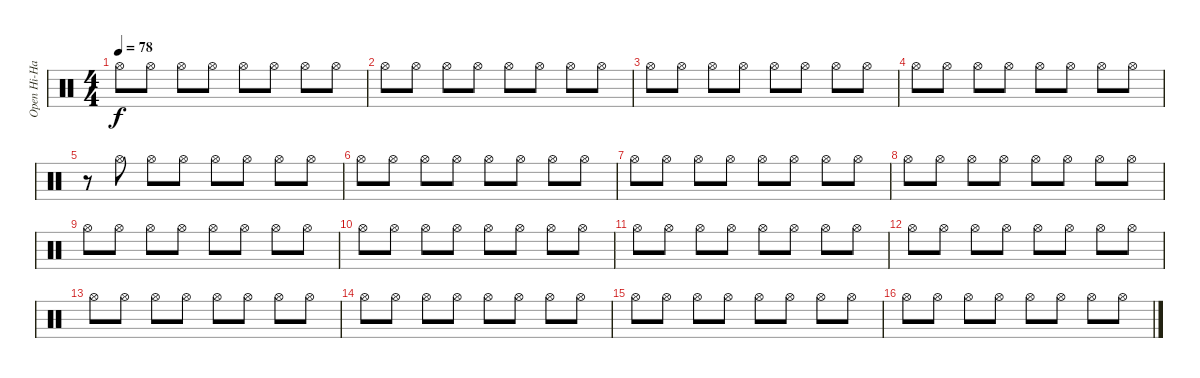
\track ("Open Hi-Hat" "Open Hi-Ha") {instrument percussion}
\staff {score}
\articulation defaults
\ts (4 4)
\tempo 78
\clef neutral
\ks c "Hi-Hat (open)".8{dy f} "Hi-Hat (open)".8 "Hi-Hat (open)".8 "Hi-Hat (open)".8 "Hi-Hat (open)".8 "Hi-Hat (open)".8 "Hi-Hat (open)".8 "Hi-Hat (open)".8
|
"Hi-Hat (open)".8 "Hi-Hat (open)".8 "Hi-Hat (open)".8 "Hi-Hat (open)".8 "Hi-Hat (open)".8 "Hi-Hat (open)".8 "Hi-Hat (open)".8 "Hi-Hat (open)".8 |
"Hi-Hat (open)".8 "Hi-Hat (open)".8 "Hi-Hat (open)".8 "Hi-Hat (open)".8 "Hi-Hat (open)".8 "Hi-Hat (open)".8 "Hi-Hat (open)".8 "Hi-Hat (open)".8 |
"Hi-Hat (open)".8 "Hi-Hat (open)".8 "Hi-Hat (open)".8 "Hi-Hat (open)".8 "Hi-Hat (open)".8 "Hi-Hat (open)".8 "Hi-Hat (open)".8 "Hi-Hat (open)".8 |
r.8 "Hi-Hat (open)".8 "Hi-Hat (open)".8 "Hi-Hat (open)".8 "Hi-Hat (open)".8 "Hi-Hat (open)".8 "Hi-Hat (open)".8 "Hi-Hat (open)".8 |
"Hi-Hat (open)".8 "Hi-Hat (open)".8 "Hi-Hat (open)".8 "Hi-Hat (open)".8 "Hi-Hat (open)".8 "Hi-Hat (open)".8 "Hi-Hat (open)".8 "Hi-Hat (open)".8 |
"Hi-Hat (open)".8 "Hi-Hat (open)".8 "Hi-Hat (open)".8 "Hi-Hat (open)".8 "Hi-Hat (open)".8 "Hi-Hat (open)".8 "Hi-Hat (open)".8 "Hi-Hat (open)".8 |
"Hi-Hat (open)".8 "Hi-Hat (open)".8 "Hi-Hat (open)".8 "Hi-Hat (open)".8 "Hi-Hat (open)".8 "Hi-Hat (open)".8 "Hi-Hat (open)".8 "Hi-Hat (open)".8 |
"Hi-Hat (open)".8 "Hi-Hat (open)".8 "Hi-Hat (open)".8 "Hi-Hat (open)".8 "Hi-Hat (open)".8 "Hi-Hat (open)".8 "Hi-Hat (open)".8 "Hi-Hat (open)".8 |
"Hi-Hat (open)".8 "Hi-Hat (open)".8 "Hi-Hat (open)".8 "Hi-Hat (open)".8 "Hi-Hat (open)".8 "Hi-Hat (open)".8 "Hi-Hat (open)".8 "Hi-Hat (open)".8 |
"Hi-Hat (open)".8 "Hi-Hat (open)".8 "Hi-Hat (open)".8 "Hi-Hat (open)".8 "Hi-Hat (open)".8 "Hi-Hat (open)".8 "Hi-Hat (open)".8 "Hi-Hat (open)".8 |
"Hi-Hat (open)".8 "Hi-Hat (open)".8 "Hi-Hat (open)".8 "Hi-Hat (open)".8 "Hi-Hat (open)".8 "Hi-Hat (open)".8 "Hi-Hat (open)".8 "Hi-Hat (open)".8 |
"Hi-Hat (open)".8 "Hi-Hat (open)".8 "Hi-Hat (open)".8 "Hi-Hat (open)".8 "Hi-Hat (open)".8 "Hi-Hat (open)".8 "Hi-Hat (open)".8 "Hi-Hat (open)".8 |
"Hi-Hat (open)".8 "Hi-Hat (open)".8 "Hi-Hat (open)".8 "Hi-Hat (open)".8 "Hi-Hat (open)".8 "Hi-Hat (open)".8 "Hi-Hat (open)".8 "Hi-Hat (open)".8 |
"Hi-Hat (open)".8 "Hi-Hat (open)".8 "Hi-Hat (open)".8 "Hi-Hat (open)".8 "Hi-Hat (open)".8 "Hi-Hat (open)".8 "Hi-Hat (open)".8 "Hi-Hat (open)".8 |
"Hi-Hat (open)".8 "Hi-Hat (open)".8 "Hi-Hat (open)".8 "Hi-Hat (open)".8 "Hi-Hat (open)".8 "Hi-Hat (open)".8 "Hi-Hat (open)".8 "Hi-Hat (open)".8
